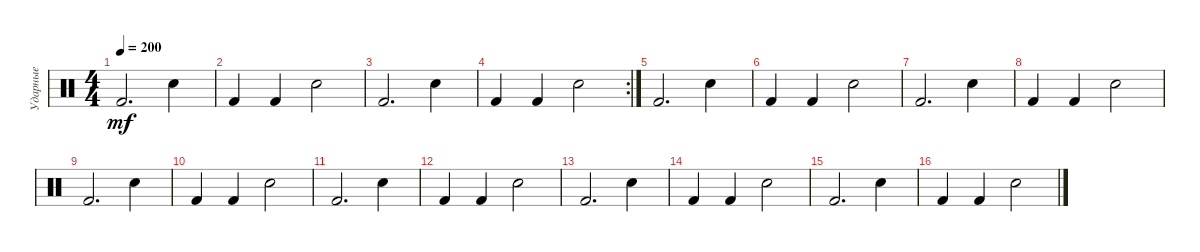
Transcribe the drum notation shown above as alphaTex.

\track ("Ударные" "Ударные") {instrument percussion}
\staff {score}
\articulation defaults
\ts (4 4)
\tempo 200
\clef neutral
\ks c "Kick (hit) 2".2{d dy mf} "Snare (hit) 2".4
|
"Kick (hit) 2".4 "Kick (hit) 2".4 "Snare (hit) 2".2 |
"Kick (hit) 2".2{d} "Snare (hit) 2".4 |
\rc 2 "Kick (hit) 2".4 "Kick (hit) 2".4 "Snare (hit) 2".2
|
"Kick (hit) 2".2{d} "Snare (hit) 2".4 |
"Kick (hit) 2".4 "Kick (hit) 2".4 "Snare (hit) 2".2 |
"Kick (hit) 2".2{d} "Snare (hit) 2".4 |
"Kick (hit) 2".4 "Kick (hit) 2".4 "Snare (hit) 2".2 |
"Kick (hit) 2".2{d} "Snare (hit) 2".4 |
"Kick (hit) 2".4 "Kick (hit) 2".4 "Snare (hit) 2".2 |
"Kick (hit) 2".2{d} "Snare (hit) 2".4 |
"Kick (hit) 2".4 "Kick (hit) 2".4 "Snare (hit) 2".2 |
"Kick (hit) 2".2{d} "Snare (hit) 2".4 |
"Kick (hit) 2".4 "Kick (hit) 2".4 "Snare (hit) 2".2 |
"Kick (hit) 2".2{d} "Snare (hit) 2".4 |
"Kick (hit) 2".4 "Kick (hit) 2".4 "Snare (hit) 2".2
